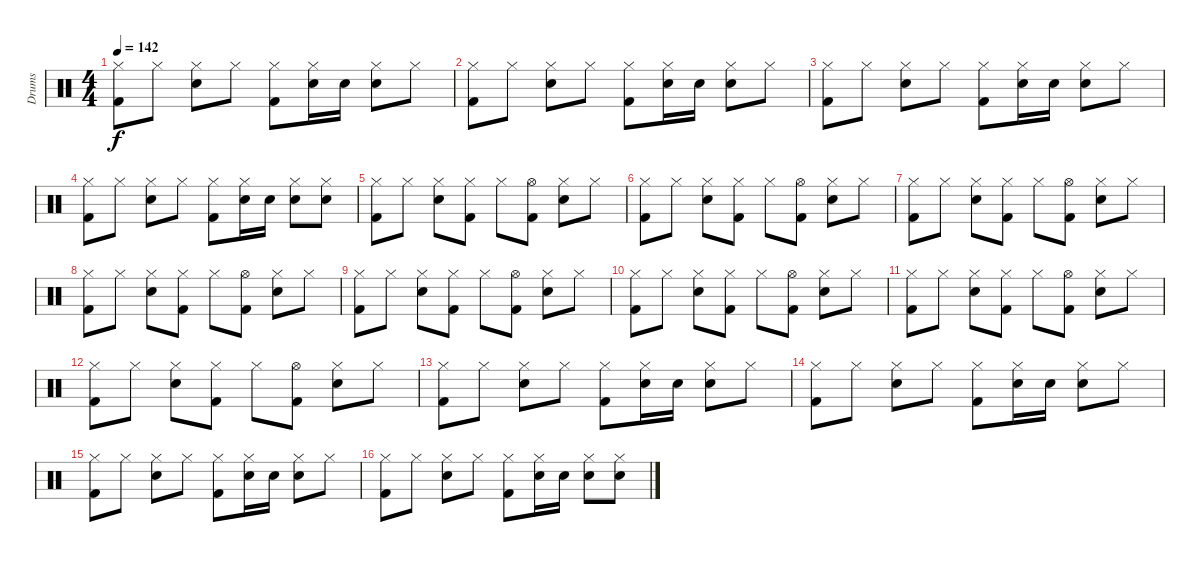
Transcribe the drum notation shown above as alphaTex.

\track ("Drums" "Drums") {instrument percussion}
\staff {score}
\articulation defaults
\ts (4 4)
\tempo 142
\clef neutral
\ks c
("Hi-Hat (closed)" "Kick (hit) 2").8{dy f} "Hi-Hat (closed)".8 ("Hi-Hat (closed)" "Electric Snare (hit)").8 "Hi-Hat (closed)".8 ("Hi-Hat (closed)" "Kick (hit) 2").8 ("Hi-Hat (closed)" "Electric Snare (hit)").16 "Electric Snare (hit)".16 ("Hi-Hat (closed)" "Electric Snare (hit)").8 "Hi-Hat (closed)".8 |
("Hi-Hat (closed)" "Kick (hit) 2").8 "Hi-Hat (closed)".8 ("Hi-Hat (closed)" "Electric Snare (hit)").8 "Hi-Hat (closed)".8 ("Hi-Hat (closed)" "Kick (hit) 2").8 ("Hi-Hat (closed)" "Electric Snare (hit)").16 "Electric Snare (hit)".16 ("Hi-Hat (closed)" "Electric Snare (hit)").8 "Hi-Hat (closed)".8 |
("Hi-Hat (closed)" "Kick (hit) 2").8 "Hi-Hat (closed)".8 ("Hi-Hat (closed)" "Electric Snare (hit)").8 "Hi-Hat (closed)".8 ("Hi-Hat (closed)" "Kick (hit) 2").8 ("Hi-Hat (closed)" "Electric Snare (hit)").16 "Electric Snare (hit)".16 ("Hi-Hat (closed)" "Electric Snare (hit)").8 "Hi-Hat (closed)".8 |
("Hi-Hat (closed)" "Kick (hit) 2").8 "Hi-Hat (closed)".8 ("Hi-Hat (closed)" "Electric Snare (hit)").8 "Hi-Hat (closed)".8 ("Hi-Hat (closed)" "Kick (hit) 2").8 ("Hi-Hat (closed)" "Electric Snare (hit)").16 "Electric Snare (hit)".16 ("Hi-Hat (closed)" "Electric Snare (hit)").8 ("Hi-Hat (closed)" "Electric Snare (hit)").8 |
("Hi-Hat (closed)" "Kick (hit) 2").8 "Hi-Hat (closed)".8 ("Hi-Hat (closed)" "Electric Snare (hit)").8 ("Hi-Hat (closed)" "Kick (hit) 2").8 "Hi-Hat (closed)".8 ("Hi-Hat (open)" "Kick (hit) 2").8 ("Hi-Hat (closed)" "Electric Snare (hit)").8 "Hi-Hat (closed)".8 |
("Hi-Hat (closed)" "Kick (hit) 2").8 "Hi-Hat (closed)".8 ("Hi-Hat (closed)" "Electric Snare (hit)").8 ("Hi-Hat (closed)" "Kick (hit) 2").8 "Hi-Hat (closed)".8 ("Hi-Hat (open)" "Kick (hit) 2").8 ("Hi-Hat (closed)" "Electric Snare (hit)").8 "Hi-Hat (closed)".8 |
("Hi-Hat (closed)" "Kick (hit) 2").8 "Hi-Hat (closed)".8 ("Hi-Hat (closed)" "Electric Snare (hit)").8 ("Hi-Hat (closed)" "Kick (hit) 2").8 "Hi-Hat (closed)".8 ("Hi-Hat (open)" "Kick (hit) 2").8 ("Hi-Hat (closed)" "Electric Snare (hit)").8 "Hi-Hat (closed)".8 |
("Hi-Hat (closed)" "Kick (hit) 2").8 "Hi-Hat (closed)".8 ("Hi-Hat (closed)" "Electric Snare (hit)").8 ("Hi-Hat (closed)" "Kick (hit) 2").8 "Hi-Hat (closed)".8 ("Hi-Hat (open)" "Kick (hit) 2").8 ("Hi-Hat (closed)" "Electric Snare (hit)").8 "Hi-Hat (closed)".8 |
("Hi-Hat (closed)" "Kick (hit) 2").8 "Hi-Hat (closed)".8 ("Hi-Hat (closed)" "Electric Snare (hit)").8 ("Hi-Hat (closed)" "Kick (hit) 2").8 "Hi-Hat (closed)".8 ("Hi-Hat (open)" "Kick (hit) 2").8 ("Hi-Hat (closed)" "Electric Snare (hit)").8 "Hi-Hat (closed)".8 |
("Hi-Hat (closed)" "Kick (hit) 2").8 "Hi-Hat (closed)".8 ("Hi-Hat (closed)" "Electric Snare (hit)").8 ("Hi-Hat (closed)" "Kick (hit) 2").8 "Hi-Hat (closed)".8 ("Hi-Hat (open)" "Kick (hit) 2").8 ("Hi-Hat (closed)" "Electric Snare (hit)").8 "Hi-Hat (closed)".8 |
("Hi-Hat (closed)" "Kick (hit) 2").8 "Hi-Hat (closed)".8 ("Hi-Hat (closed)" "Electric Snare (hit)").8 ("Hi-Hat (closed)" "Kick (hit) 2").8 "Hi-Hat (closed)".8 ("Hi-Hat (open)" "Kick (hit) 2").8 ("Hi-Hat (closed)" "Electric Snare (hit)").8 "Hi-Hat (closed)".8 |
("Hi-Hat (closed)" "Kick (hit) 2").8 "Hi-Hat (closed)".8 ("Hi-Hat (closed)" "Electric Snare (hit)").8 ("Hi-Hat (closed)" "Kick (hit) 2").8 "Hi-Hat (closed)".8 ("Hi-Hat (open)" "Kick (hit) 2").8 ("Hi-Hat (closed)" "Electric Snare (hit)").8 "Hi-Hat (closed)".8 |
("Hi-Hat (closed)" "Kick (hit) 2").8 "Hi-Hat (closed)".8 ("Hi-Hat (closed)" "Electric Snare (hit)").8 "Hi-Hat (closed)".8 ("Hi-Hat (closed)" "Kick (hit) 2").8 ("Hi-Hat (closed)" "Electric Snare (hit)").16 "Electric Snare (hit)".16 ("Hi-Hat (closed)" "Electric Snare (hit)").8 "Hi-Hat (closed)".8 |
("Hi-Hat (closed)" "Kick (hit) 2").8 "Hi-Hat (closed)".8 ("Hi-Hat (closed)" "Electric Snare (hit)").8 "Hi-Hat (closed)".8 ("Hi-Hat (closed)" "Kick (hit) 2").8 ("Hi-Hat (closed)" "Electric Snare (hit)").16 "Electric Snare (hit)".16 ("Hi-Hat (closed)" "Electric Snare (hit)").8 "Hi-Hat (closed)".8 |
("Hi-Hat (closed)" "Kick (hit) 2").8 "Hi-Hat (closed)".8 ("Hi-Hat (closed)" "Electric Snare (hit)").8 "Hi-Hat (closed)".8 ("Hi-Hat (closed)" "Kick (hit) 2").8 ("Hi-Hat (closed)" "Electric Snare (hit)").16 "Electric Snare (hit)".16 ("Hi-Hat (closed)" "Electric Snare (hit)").8 "Hi-Hat (closed)".8 |
("Hi-Hat (closed)" "Kick (hit) 2").8 "Hi-Hat (closed)".8 ("Hi-Hat (closed)" "Electric Snare (hit)").8 "Hi-Hat (closed)".8 ("Hi-Hat (closed)" "Kick (hit) 2").8 ("Hi-Hat (closed)" "Electric Snare (hit)").16 "Electric Snare (hit)".16 ("Hi-Hat (closed)" "Electric Snare (hit)").8 ("Hi-Hat (closed)" "Electric Snare (hit)").8
